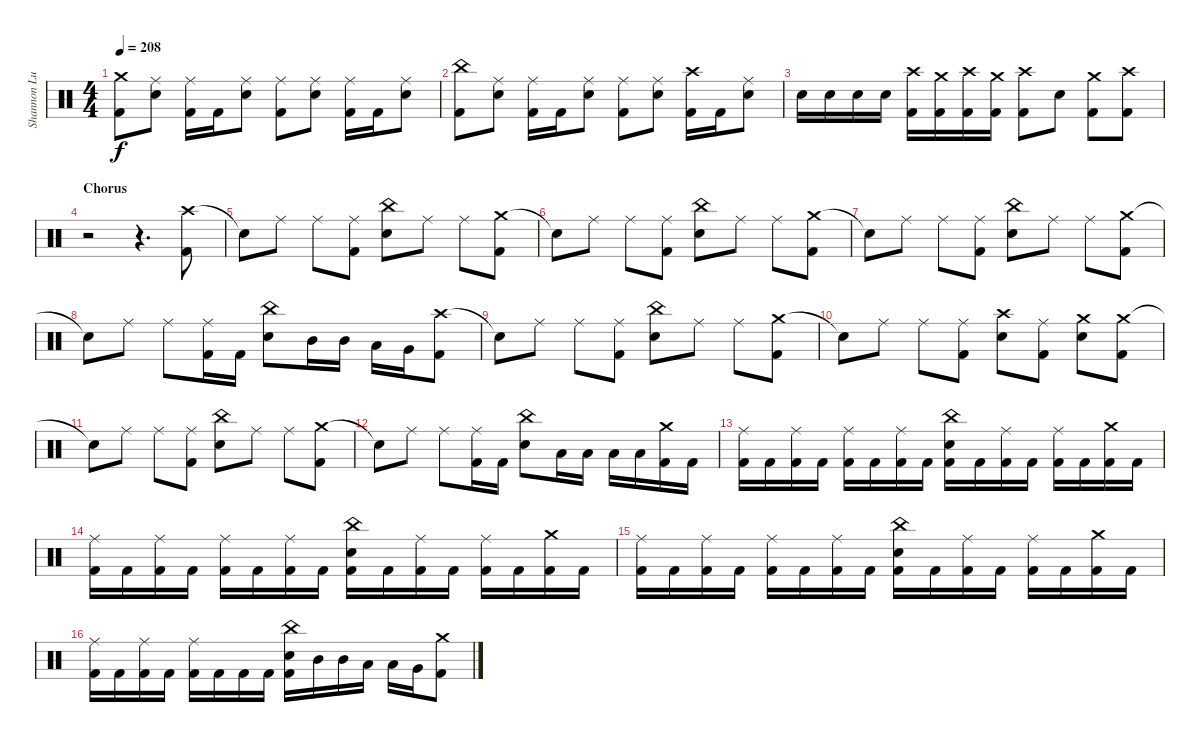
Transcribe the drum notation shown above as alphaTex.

\track ("Shannon Lucas [Drums (Since 2007)]" "Shannon Lu") {instrument percussion}
\staff {score}
\articulation defaults
\ts (4 4)
\tempo 208
\clef neutral
\ks c
("Crash medium (hit)" "Kick (hit) 2").8{dy f} ("Ride (middle)" "Snare (hit) 2").8 ("Ride (middle)" "Kick (hit) 2").16 "Kick (hit) 2".16 ("Ride (middle)" "Snare (hit) 2").8 ("Ride (middle)" "Kick (hit) 2").8 ("Ride (middle)" "Snare (hit) 2").8 ("Ride (middle)" "Kick (hit) 2").16 "Kick (hit) 2".16 ("Ride (middle)" "Snare (hit) 2").8 |
("China (hit)" "Kick (hit) 2").8 ("Ride (middle)" "Snare (hit) 2").8 ("Ride (middle)" "Kick (hit) 2").16 "Kick (hit) 2".16 ("Ride (middle)" "Snare (hit) 2").8 ("Ride (middle)" "Kick (hit) 2").8 ("Ride (middle)" "Snare (hit) 2").8 ("Crash high (hit)" "Kick (hit) 2").16 "Kick (hit) 2".16 ("Ride (middle)" "Snare (hit) 2").8 |
"Snare (hit) 2".16 "Snare (hit) 2".16 "Snare (hit) 2".16 "Snare (hit) 2".16 ("Crash high (hit)" "Kick (hit) 2").16 ("Crash medium (hit)" "Kick (hit) 2").16 ("Crash high (hit)" "Kick (hit) 2").16 ("Crash medium (hit)" "Kick (hit) 2").16 ("Crash high (hit)" "Kick (hit) 2").8 "Snare (hit) 2".8 ("Crash medium (hit)" "Kick (hit) 2").8 ("Crash high (hit)" "Kick (hit) 2").8 |
\section ("" "Chorus")
r.2 r.4{d} ("Crash high (hit)" "Kick (hit) 2").8 |
"Snare (hit)"{t}.8 "Ride (middle)".8 "Ride (middle)".8 ("Ride (middle)" "Kick (hit) 2").8 ("China (hit)" "Snare (hit) 2").8 "Ride (middle)".8 "Ride (middle)".8 ("Crash medium (hit)" "Kick (hit) 2").8 |
"Snare (hit)"{t}.8 "Ride (middle)".8 "Ride (middle)".8 ("Ride (middle)" "Kick (hit) 2").8 ("China (hit)" "Snare (hit) 2").8 "Ride (middle)".8 "Ride (middle)".8 ("Crash medium (hit)" "Kick (hit) 2").8 |
"Snare (hit)"{t}.8 "Ride (middle)".8 "Ride (middle)".8 ("Ride (middle)" "Kick (hit) 2").8 ("China (hit)" "Snare (hit) 2").8 "Ride (middle)".8 "Ride (middle)".8 ("Crash medium (hit)" "Kick (hit) 2").8 |
"Snare (hit)"{t}.8 "Ride (middle)".8 "Ride (middle)".8 ("Ride (middle)" "Kick (hit) 2").16 "Kick (hit) 2".16 ("China (hit)" "Snare (hit) 2").8 "Mid Tom (hit)".16 "Mid Tom (hit)".16 "Low Tom (hit)".16 "Very Low Tom (hit)".16 ("Crash high (hit)" "Kick (hit) 2").8 |
"Snare (hit)"{t}.8 "Ride (middle)".8 "Ride (middle)".8 ("Ride (middle)" "Kick (hit) 2").8 ("China (hit)" "Snare (hit) 2").8 "Ride (middle)".8 "Ride (middle)".8 ("Crash medium (hit)" "Kick (hit) 2").8 |
"Snare (hit)"{t}.8 "Ride (middle)".8 "Ride (middle)".8 ("Ride (middle)" "Kick (hit) 2").8 ("Crash high (hit)" "Snare (hit) 2").8 ("Ride (middle)" "Kick (hit) 2").8 ("Crash medium (hit)" "Snare (hit) 2").8 ("Crash medium (hit)" "Kick (hit) 2").8 |
"Snare (hit)"{t}.8 "Ride (middle)".8 "Ride (middle)".8 ("Ride (middle)" "Kick (hit) 2").8 ("China (hit)" "Snare (hit) 2").8 "Ride (middle)".8 "Ride (middle)".8 ("Crash medium (hit)" "Kick (hit) 2").8 |
"Snare (hit)"{t}.8 "Ride (middle)".8 "Ride (middle)".8 ("Ride (middle)" "Kick (hit) 2").16 "Kick (hit) 2".16 ("China (hit)" "Snare (hit) 2").8 "Low Tom (hit)".16 "Low Tom (hit)".16 "Low Tom (hit)".16 "Low Tom (hit)".16 ("Crash medium (hit)" "Kick (hit) 2").16 "Kick (hit) 2".16 |
("Ride (middle)" "Kick (hit) 2").16 "Kick (hit) 2".16 ("Ride (middle)" "Kick (hit) 2").16 "Kick (hit) 2".16 ("Ride (middle)" "Kick (hit) 2").16 "Kick (hit) 2".16 ("Ride (middle)" "Kick (hit) 2").16 "Kick (hit) 2".16 ("China (hit)" "Snare (hit) 2" "Kick (hit) 2").16 "Kick (hit) 2".16 ("Ride (middle)" "Kick (hit) 2").16 "Kick (hit) 2".16 ("Ride (middle)" "Kick (hit) 2").16 "Kick (hit) 2".16 ("Crash medium (hit)" "Kick (hit) 2").16 "Kick (hit) 2".16 |
("Ride (middle)" "Kick (hit) 2").16 "Kick (hit) 2".16 ("Ride (middle)" "Kick (hit) 2").16 "Kick (hit) 2".16 ("Ride (middle)" "Kick (hit) 2").16 "Kick (hit) 2".16 ("Ride (middle)" "Kick (hit) 2").16 "Kick (hit) 2".16 ("China (hit)" "Snare (hit) 2" "Kick (hit) 2").16 "Kick (hit) 2".16 ("Ride (middle)" "Kick (hit) 2").16 "Kick (hit) 2".16 ("Ride (middle)" "Kick (hit) 2").16 "Kick (hit) 2".16 ("Crash medium (hit)" "Kick (hit) 2").16 "Kick (hit) 2".16 |
("Ride (middle)" "Kick (hit) 2").16 "Kick (hit) 2".16 ("Ride (middle)" "Kick (hit) 2").16 "Kick (hit) 2".16 ("Ride (middle)" "Kick (hit) 2").16 "Kick (hit) 2".16 ("Ride (middle)" "Kick (hit) 2").16 "Kick (hit) 2".16 ("China (hit)" "Snare (hit) 2" "Kick (hit) 2").16 "Kick (hit) 2".16 ("Ride (middle)" "Kick (hit) 2").16 "Kick (hit) 2".16 ("Ride (middle)" "Kick (hit) 2").16 "Kick (hit) 2".16 ("Crash medium (hit)" "Kick (hit) 2").16 "Kick (hit) 2".16 |
("Ride (middle)" "Kick (hit) 2").16 "Kick (hit) 2".16 ("Ride (middle)" "Kick (hit) 2").16 "Kick (hit) 2".16 ("Ride (middle)" "Kick (hit) 2").16 "Kick (hit) 2".16 "Kick (hit) 2".16 "Kick (hit) 2".16 ("China (hit)" "Snare (hit) 2" "Kick (hit) 2").16 "Mid Tom (hit)".16 "Mid Tom (hit)".16 "Low Tom (hit)".16 "Low Tom (hit)".16 "Very Low Tom (hit)".16 ("Crash medium (hit)" "Kick (hit) 2").8
